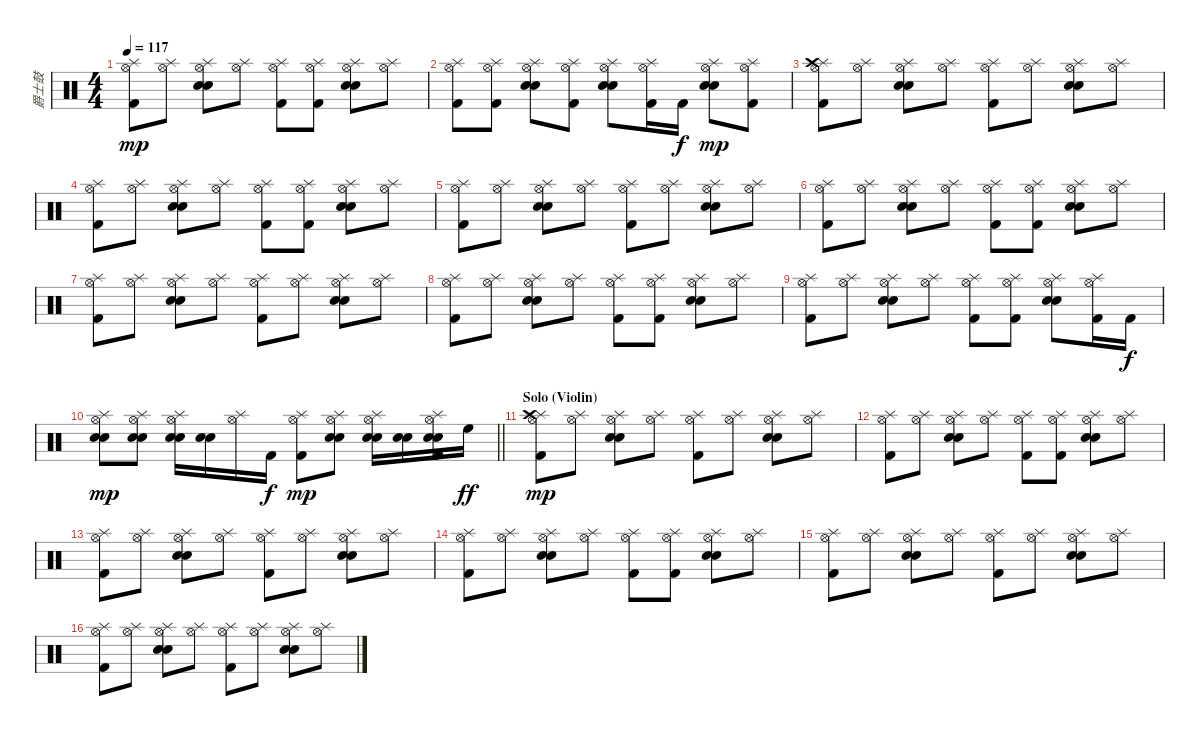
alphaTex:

\track ("爵士鼓" "爵士鼓") {instrument percussion}
\staff {score}
\articulation defaults
\ts (4 4)
\tempo 117
\clef neutral
\ks c
("Splash (hit)" "Hi-Hat (open)" "Kick (hit) 2").8{dy mp} ("Splash (hit)" "Hi-Hat (open)").8 ("Splash (hit)" "Hi-Hat (open)" "Electric Snare (hit)" "Snare (hit) 2").8 ("Splash (hit)" "Hi-Hat (open)").8 ("Splash (hit)" "Hi-Hat (open)" "Kick (hit) 2").8 ("Splash (hit)" "Hi-Hat (open)" "Kick (hit) 2").8 ("Splash (hit)" "Hi-Hat (open)" "Electric Snare (hit)" "Snare (hit) 2").8 ("Splash (hit)" "Hi-Hat (open)").8 |
("Splash (hit)" "Hi-Hat (open)" "Kick (hit) 2").8 ("Splash (hit)" "Hi-Hat (open)" "Kick (hit) 2").8 ("Splash (hit)" "Hi-Hat (open)" "Electric Snare (hit)" "Snare (hit) 2").8 ("Splash (hit)" "Hi-Hat (open)" "Kick (hit) 2").8 ("Splash (hit)" "Hi-Hat (open)" "Electric Snare (hit)" "Snare (hit) 2").8 ("Splash (hit)" "Hi-Hat (open)" "Kick (hit) 2").16 "Kick (hit) 2".16{dy f} ("Splash (hit)" "Hi-Hat (open)" "Electric Snare (hit)" "Snare (hit) 2").8{dy mp} ("Splash (hit)" "Hi-Hat (open)" "Kick (hit) 2").8 |
("Splash (hit)" "Crash high (hit)" "Hi-Hat (open)" "Kick (hit) 2").8 ("Splash (hit)" "Hi-Hat (open)").8 ("Splash (hit)" "Hi-Hat (open)" "Electric Snare (hit)" "Snare (hit) 2").8 ("Splash (hit)" "Hi-Hat (open)").8 ("Splash (hit)" "Hi-Hat (open)" "Kick (hit) 2").8 ("Splash (hit)" "Hi-Hat (open)").8 ("Splash (hit)" "Hi-Hat (open)" "Electric Snare (hit)" "Snare (hit) 2").8 ("Splash (hit)" "Hi-Hat (open)").8 |
("Splash (hit)" "Hi-Hat (open)" "Kick (hit) 2").8 ("Splash (hit)" "Hi-Hat (open)").8 ("Splash (hit)" "Hi-Hat (open)" "Electric Snare (hit)" "Snare (hit) 2").8 ("Splash (hit)" "Hi-Hat (open)").8 ("Splash (hit)" "Hi-Hat (open)" "Kick (hit) 2").8 ("Splash (hit)" "Hi-Hat (open)" "Kick (hit) 2").8 ("Splash (hit)" "Hi-Hat (open)" "Electric Snare (hit)" "Snare (hit) 2").8 ("Splash (hit)" "Hi-Hat (open)").8 |
("Splash (hit)" "Hi-Hat (open)" "Kick (hit) 2").8 ("Splash (hit)" "Hi-Hat (open)").8 ("Splash (hit)" "Hi-Hat (open)" "Electric Snare (hit)" "Snare (hit) 2").8 ("Splash (hit)" "Hi-Hat (open)").8 ("Splash (hit)" "Hi-Hat (open)" "Kick (hit) 2").8 ("Splash (hit)" "Hi-Hat (open)").8 ("Splash (hit)" "Hi-Hat (open)" "Electric Snare (hit)" "Snare (hit) 2").8 ("Splash (hit)" "Hi-Hat (open)").8 |
("Splash (hit)" "Hi-Hat (open)" "Kick (hit) 2").8 ("Splash (hit)" "Hi-Hat (open)").8 ("Splash (hit)" "Hi-Hat (open)" "Electric Snare (hit)" "Snare (hit) 2").8 ("Splash (hit)" "Hi-Hat (open)").8 ("Splash (hit)" "Hi-Hat (open)" "Kick (hit) 2").8 ("Splash (hit)" "Hi-Hat (open)" "Kick (hit) 2").8 ("Splash (hit)" "Hi-Hat (open)" "Electric Snare (hit)" "Snare (hit) 2").8 ("Splash (hit)" "Hi-Hat (open)").8 |
("Splash (hit)" "Hi-Hat (open)" "Kick (hit) 2").8 ("Splash (hit)" "Hi-Hat (open)").8 ("Splash (hit)" "Hi-Hat (open)" "Electric Snare (hit)" "Snare (hit) 2").8 ("Splash (hit)" "Hi-Hat (open)").8 ("Splash (hit)" "Hi-Hat (open)" "Kick (hit) 2").8 ("Splash (hit)" "Hi-Hat (open)").8 ("Splash (hit)" "Hi-Hat (open)" "Electric Snare (hit)" "Snare (hit) 2").8 ("Splash (hit)" "Hi-Hat (open)").8 |
("Splash (hit)" "Hi-Hat (open)" "Kick (hit) 2").8 ("Splash (hit)" "Hi-Hat (open)").8 ("Splash (hit)" "Hi-Hat (open)" "Electric Snare (hit)" "Snare (hit) 2").8 ("Splash (hit)" "Hi-Hat (open)").8 ("Splash (hit)" "Hi-Hat (open)" "Kick (hit) 2").8 ("Splash (hit)" "Hi-Hat (open)" "Kick (hit) 2").8 ("Splash (hit)" "Hi-Hat (open)" "Electric Snare (hit)" "Snare (hit) 2").8 ("Splash (hit)" "Hi-Hat (open)").8 |
("Splash (hit)" "Hi-Hat (open)" "Kick (hit) 2").8 ("Splash (hit)" "Hi-Hat (open)").8 ("Splash (hit)" "Hi-Hat (open)" "Electric Snare (hit)" "Snare (hit) 2").8 ("Splash (hit)" "Hi-Hat (open)").8 ("Splash (hit)" "Hi-Hat (open)" "Kick (hit) 2").8 ("Splash (hit)" "Hi-Hat (open)" "Kick (hit) 2").8 ("Splash (hit)" "Hi-Hat (open)" "Electric Snare (hit)" "Snare (hit) 2").8 ("Splash (hit)" "Hi-Hat (open)" "Kick (hit) 2").16 "Kick (hit) 2".16{dy f} |
\barLineRight lightlight
("Splash (hit)" "Hi-Hat (open)" "Electric Snare (hit)" "Snare (hit) 2").8{dy mp} ("Splash (hit)" "Hi-Hat (open)" "Electric Snare (hit)" "Snare (hit) 2").8 ("Splash (hit)" "Hi-Hat (open)" "Electric Snare (hit)" "Snare (hit) 2").16 ("Electric Snare (hit)" "Snare (hit) 2").16 ("Splash (hit)" "Hi-Hat (open)").16 "Kick (hit) 2".16{dy f} ("Splash (hit)" "Hi-Hat (open)" "Kick (hit) 2").8{dy mp} ("Splash (hit)" "Hi-Hat (open)" "Electric Snare (hit)" "Snare (hit) 2").8 ("Splash (hit)" "Hi-Hat (open)" "Electric Snare (hit)" "Snare (hit) 2").16 ("Electric Snare (hit)" "Snare (hit) 2").16 ("Splash (hit)" "Hi-Hat (open)" "Electric Snare (hit)" "Snare (hit) 2" "Kick (hit) 2").16 "High Floor Tom (hit)".16{dy ff} |
\section ("" "Solo (Violin)")
("Splash (hit)" "Crash high (hit)" "Hi-Hat (open)" "Kick (hit) 2").8{dy mp} ("Splash (hit)" "Hi-Hat (open)").8 ("Splash (hit)" "Hi-Hat (open)" "Electric Snare (hit)" "Snare (hit) 2").8 ("Splash (hit)" "Hi-Hat (open)").8 ("Splash (hit)" "Hi-Hat (open)" "Kick (hit) 2").8 ("Splash (hit)" "Hi-Hat (open)").8 ("Splash (hit)" "Hi-Hat (open)" "Electric Snare (hit)" "Snare (hit) 2").8 ("Splash (hit)" "Hi-Hat (open)").8 |
("Splash (hit)" "Hi-Hat (open)" "Kick (hit) 2").8 ("Splash (hit)" "Hi-Hat (open)").8 ("Splash (hit)" "Hi-Hat (open)" "Electric Snare (hit)" "Snare (hit) 2").8 ("Splash (hit)" "Hi-Hat (open)").8 ("Splash (hit)" "Hi-Hat (open)" "Kick (hit) 2").8 ("Splash (hit)" "Hi-Hat (open)" "Kick (hit) 2").8 ("Splash (hit)" "Hi-Hat (open)" "Electric Snare (hit)" "Snare (hit) 2").8 ("Splash (hit)" "Hi-Hat (open)").8 |
("Splash (hit)" "Hi-Hat (open)" "Kick (hit) 2").8 ("Splash (hit)" "Hi-Hat (open)").8 ("Splash (hit)" "Hi-Hat (open)" "Electric Snare (hit)" "Snare (hit) 2").8 ("Splash (hit)" "Hi-Hat (open)").8 ("Splash (hit)" "Hi-Hat (open)" "Kick (hit) 2").8 ("Splash (hit)" "Hi-Hat (open)").8 ("Splash (hit)" "Hi-Hat (open)" "Electric Snare (hit)" "Snare (hit) 2").8 ("Splash (hit)" "Hi-Hat (open)").8 |
("Splash (hit)" "Hi-Hat (open)" "Kick (hit) 2").8 ("Splash (hit)" "Hi-Hat (open)").8 ("Splash (hit)" "Hi-Hat (open)" "Electric Snare (hit)" "Snare (hit) 2").8 ("Splash (hit)" "Hi-Hat (open)").8 ("Splash (hit)" "Hi-Hat (open)" "Kick (hit) 2").8 ("Splash (hit)" "Hi-Hat (open)" "Kick (hit) 2").8 ("Splash (hit)" "Hi-Hat (open)" "Electric Snare (hit)" "Snare (hit) 2").8 ("Splash (hit)" "Hi-Hat (open)").8 |
("Splash (hit)" "Hi-Hat (open)" "Kick (hit) 2").8 ("Splash (hit)" "Hi-Hat (open)").8 ("Splash (hit)" "Hi-Hat (open)" "Electric Snare (hit)" "Snare (hit) 2").8 ("Splash (hit)" "Hi-Hat (open)").8 ("Splash (hit)" "Hi-Hat (open)" "Kick (hit) 2").8 ("Splash (hit)" "Hi-Hat (open)").8 ("Splash (hit)" "Hi-Hat (open)" "Electric Snare (hit)" "Snare (hit) 2").8 ("Splash (hit)" "Hi-Hat (open)").8 |
("Splash (hit)" "Hi-Hat (open)" "Kick (hit) 2").8 ("Splash (hit)" "Hi-Hat (open)").8 ("Splash (hit)" "Hi-Hat (open)" "Electric Snare (hit)" "Snare (hit) 2").8 ("Splash (hit)" "Hi-Hat (open)").8 ("Splash (hit)" "Hi-Hat (open)" "Kick (hit) 2").8 ("Splash (hit)" "Hi-Hat (open)").8 ("Splash (hit)" "Hi-Hat (open)" "Electric Snare (hit)" "Snare (hit) 2").8 ("Splash (hit)" "Hi-Hat (open)").8
